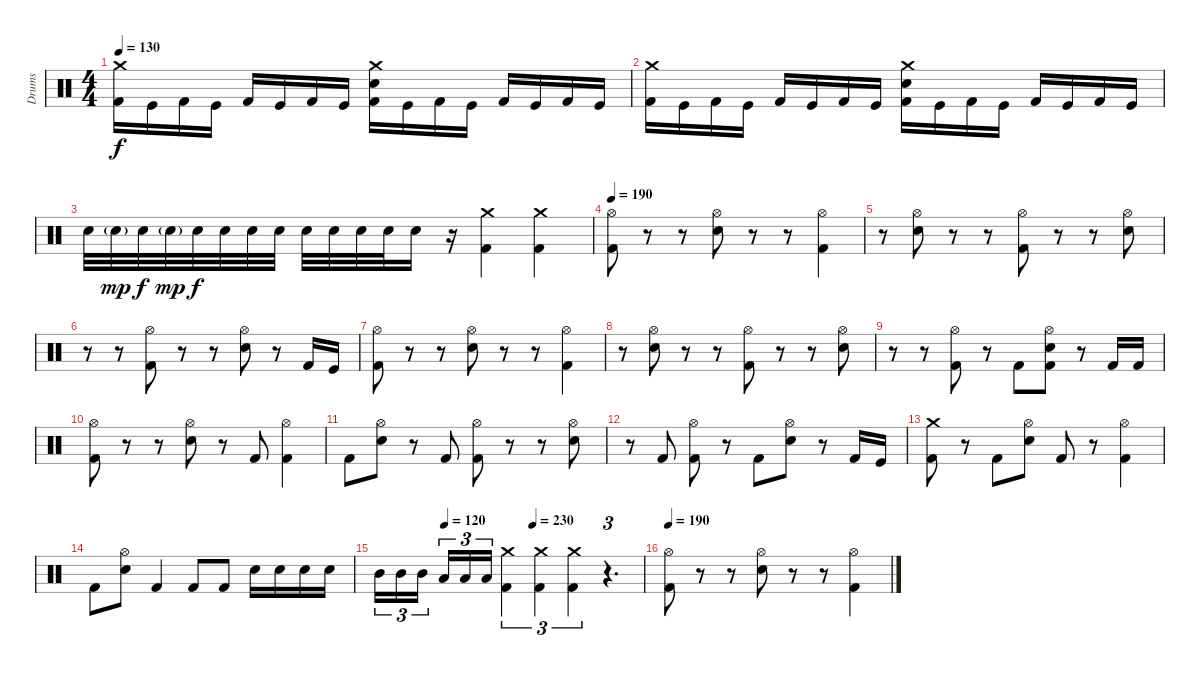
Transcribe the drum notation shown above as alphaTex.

\track ("Drums" "Drums") {instrument percussion}
\staff {score}
\articulation defaults
\ts (4 4)
\tempo 130
\clef neutral
\ks c
("Crash medium (hit)" "Kick (hit) 2").16{dy f} "Kick (hit)".16 "Kick (hit) 2".16 "Kick (hit)".16 "Kick (hit) 2".16 "Kick (hit)".16 "Kick (hit) 2".16 "Kick (hit)".16 ("Crash medium (hit)" "Electric Snare (hit)" "Kick (hit) 2").16 "Kick (hit)".16 "Kick (hit) 2".16 "Kick (hit)".16 "Kick (hit) 2".16 "Kick (hit)".16 "Kick (hit) 2".16 "Kick (hit)".16 |
("Crash medium (hit)" "Kick (hit) 2").16 "Kick (hit)".16 "Kick (hit) 2".16 "Kick (hit)".16 "Kick (hit) 2".16 "Kick (hit)".16 "Kick (hit) 2".16 "Kick (hit)".16 ("Crash medium (hit)" "Electric Snare (hit)" "Kick (hit) 2").16 "Kick (hit)".16 "Kick (hit) 2".16 "Kick (hit)".16 "Kick (hit) 2".16 "Kick (hit)".16 "Kick (hit) 2".16 "Kick (hit)".16 |
"Electric Snare (hit)".32 "Electric Snare (hit)"{g}.32{dy mp} "Electric Snare (hit)".32{dy f} "Electric Snare (hit)"{g}.32{dy mp} "Electric Snare (hit)".32{dy f} "Electric Snare (hit)".32 "Electric Snare (hit)".32 "Electric Snare (hit)".32 "Electric Snare (hit)".32 "Electric Snare (hit)".32 "Electric Snare (hit)".32 "Electric Snare (hit)".32 "Electric Snare (hit)".16 r.16 ("Crash medium (hit)" "Kick (hit) 2").4 ("Crash medium (hit)" "Kick (hit) 2").4 |
\tempo 190
("Hi-Hat (open)" "Kick (hit) 2").8 r.8 r.8 ("Hi-Hat (open)" "Electric Snare (hit)").8 r.8 r.8 ("Hi-Hat (open)" "Kick (hit) 2").4 |
r.8 ("Hi-Hat (open)" "Electric Snare (hit)").8 r.8 r.8 ("Hi-Hat (open)" "Kick (hit) 2").8 r.8 r.8 ("Hi-Hat (open)" "Electric Snare (hit)").8 |
r.8 r.8 ("Hi-Hat (open)" "Kick (hit) 2").8 r.8 r.8 ("Hi-Hat (open)" "Electric Snare (hit)").8 r.8 "Kick (hit) 2".16 "Kick (hit)".16 |
("Hi-Hat (open)" "Kick (hit) 2").8 r.8 r.8 ("Hi-Hat (open)" "Electric Snare (hit)").8 r.8 r.8 ("Hi-Hat (open)" "Kick (hit) 2").4 |
r.8 ("Hi-Hat (open)" "Electric Snare (hit)").8 r.8 r.8 ("Hi-Hat (open)" "Kick (hit) 2").8 r.8 r.8 ("Hi-Hat (open)" "Electric Snare (hit)").8 |
r.8 r.8 ("Hi-Hat (open)" "Kick (hit) 2").8 r.8 "Kick (hit) 2".8 ("Hi-Hat (open)" "Electric Snare (hit)" "Kick (hit) 2").8 r.8 "Kick (hit) 2".16 "Kick (hit) 2".16 |
("Hi-Hat (open)" "Kick (hit) 2").8 r.8 r.8 ("Hi-Hat (open)" "Electric Snare (hit)").8 r.8 "Kick (hit) 2".8 ("Hi-Hat (open)" "Kick (hit) 2").4 |
"Kick (hit) 2".8 ("Hi-Hat (open)" "Electric Snare (hit)").8 r.8 "Kick (hit) 2".8 ("Hi-Hat (open)" "Kick (hit) 2").8 r.8 r.8 ("Hi-Hat (open)" "Electric Snare (hit)").8 |
r.8 "Kick (hit) 2".8 ("Hi-Hat (open)" "Kick (hit) 2").8 r.8 "Kick (hit) 2".8 ("Hi-Hat (open)" "Electric Snare (hit)").8 r.8 "Kick (hit) 2".16 "Kick (hit)".16 |
("Crash medium (hit)" "Kick (hit) 2").8 r.8 "Kick (hit) 2".8 ("Hi-Hat (open)" "Electric Snare (hit)").8 "Kick (hit) 2".8 r.8 ("Hi-Hat (open)" "Kick (hit) 2").4 |
"Kick (hit) 2".8 ("Hi-Hat (open)" "Electric Snare (hit)").8 "Kick (hit) 2".4 "Kick (hit) 2".8 "Kick (hit) 2".8 "Electric Snare (hit)".16 "Electric Snare (hit)".16 "Electric Snare (hit)".16 "Electric Snare (hit)".16 |
\tempo (120 0.25)
\tempo (230 0.5833333333333334)
"Mid Tom (hit)".16{tu (3 2)} "Mid Tom (hit)".16{tu (3 2)} "Mid Tom (hit)".16{tu (3 2)} "Low Tom (hit)".16{tu (3 2)} "Low Tom (hit)".16{tu (3 2)} "Low Tom (hit)".16{tu (3 2)} ("Crash medium (hit)" "Kick (hit) 2").4{tu (3 2)} ("Crash medium (hit)" "Kick (hit) 2").4{tu (3 2)} ("Crash medium (hit)" "Kick (hit) 2").4{tu (3 2)} r.4{d tu (3 2)} |
\tempo 190
("Hi-Hat (open)" "Kick (hit) 2").8 r.8 r.8 ("Hi-Hat (open)" "Electric Snare (hit)").8 r.8 r.8 ("Hi-Hat (open)" "Kick (hit) 2").4
